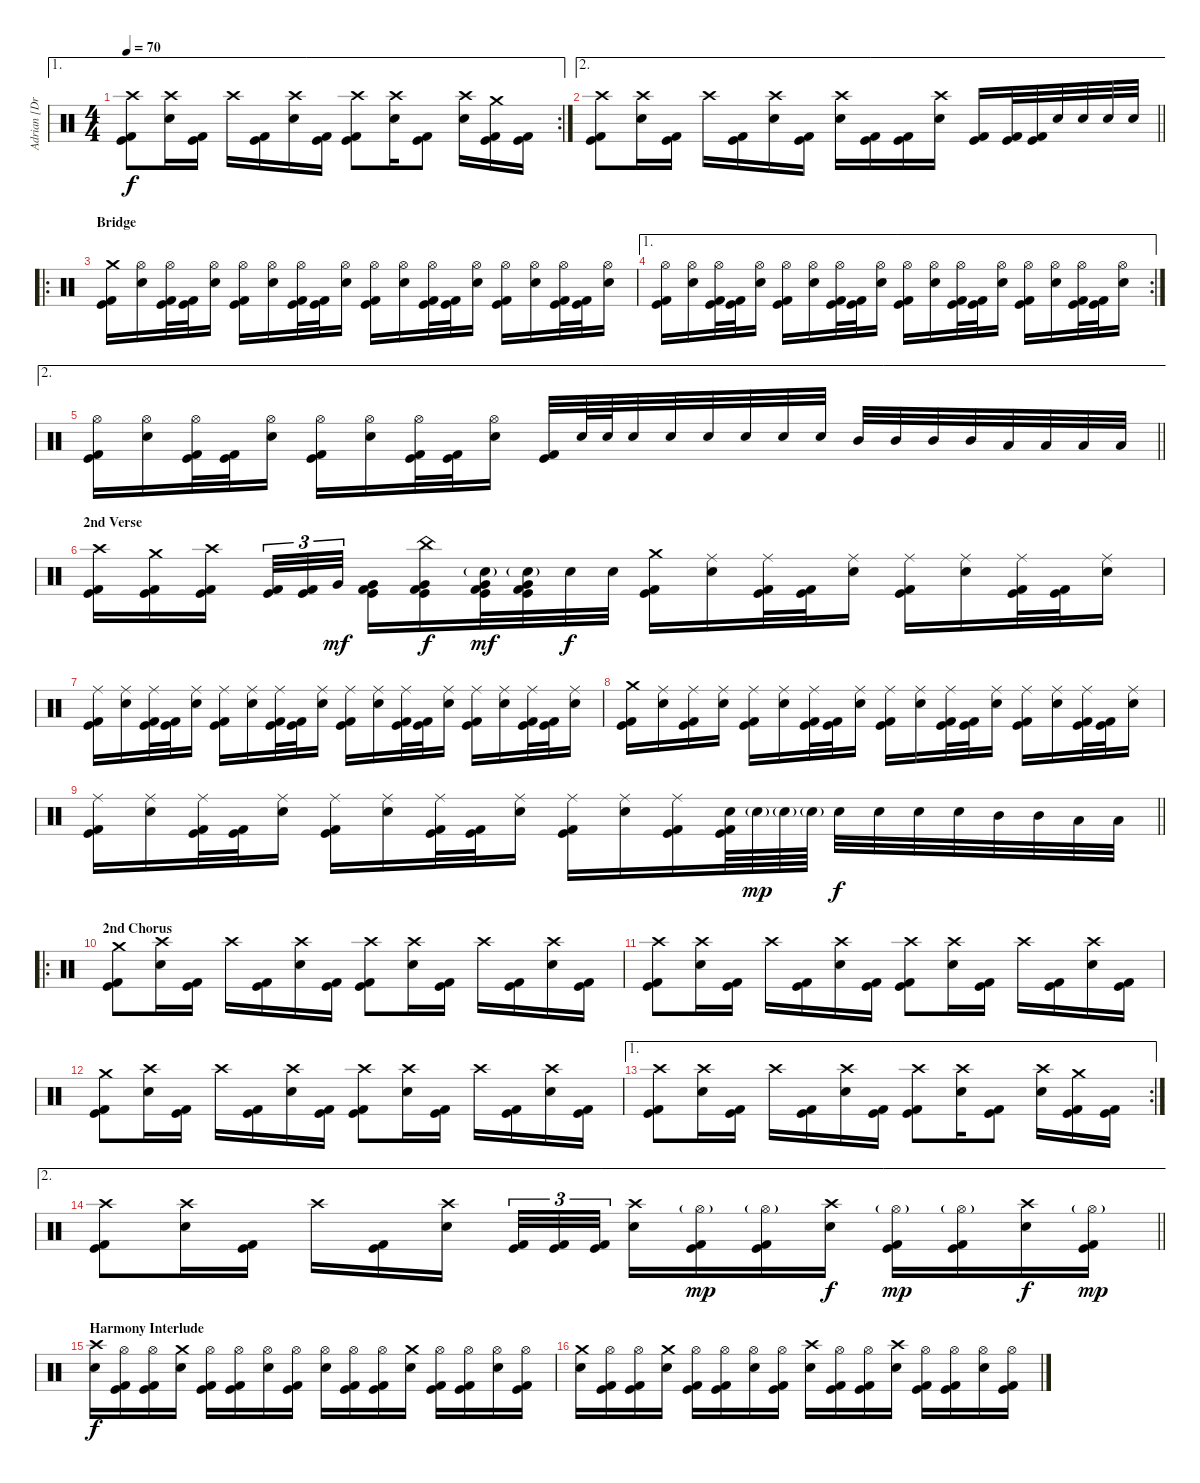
\track ("Adrian [Drums]" "Adrian [Dr") {instrument percussion}
\staff {score}
\articulation defaults
\ae 1
\rc 2
\ts (4 4)
\tempo 70
\clef neutral
\ks c
("Crash high (hit)" "Kick (hit)" "Kick (hit) 2").8{dy f} ("Crash high (hit)" "Electric Snare (hit)").16 ("Kick (hit)" "Kick (hit) 2").16 "Crash high (hit)".16 ("Kick (hit)" "Kick (hit) 2").16 ("Crash high (hit)" "Electric Snare (hit)").16 ("Kick (hit)" "Kick (hit) 2").16 ("Crash high (hit)" "Kick (hit)" "Kick (hit) 2").8 ("Crash high (hit)" "Electric Snare (hit)").16 ("Kick (hit)" "Kick (hit) 2").8 ("Crash high (hit)" "Electric Snare (hit)").16 ("Crash medium (hit)" "Kick (hit)" "Kick (hit) 2").16 ("Kick (hit)" "Kick (hit) 2").16 |
\ae 2
\barLineRight lightlight
("Crash high (hit)" "Kick (hit)" "Kick (hit) 2").8 ("Crash high (hit)" "Electric Snare (hit)").16 ("Kick (hit)" "Kick (hit) 2").16 "Crash high (hit)".16 ("Kick (hit)" "Kick (hit) 2").16 ("Crash high (hit)" "Electric Snare (hit)").16 ("Kick (hit)" "Kick (hit) 2").16 ("Crash high (hit)" "Electric Snare (hit)").16 ("Kick (hit)" "Kick (hit) 2").16 ("Kick (hit)" "Kick (hit) 2").16 ("Crash high (hit)" "Electric Snare (hit)").16 ("Kick (hit)" "Kick (hit) 2").16 ("Kick (hit)" "Kick (hit) 2").32 ("Kick (hit)" "Kick (hit) 2").32 "Electric Snare (hit)".32 "Electric Snare (hit)".32 "Electric Snare (hit)".32 "Electric Snare (hit)".32 |
\ro
\section ("" "Bridge")
("Crash medium (hit)" "Kick (hit)" "Kick (hit) 2").16 ("Hi-Hat (open)" "Electric Snare (hit)").16 ("Hi-Hat (open)" "Kick (hit)" "Kick (hit) 2").32 ("Kick (hit)" "Kick (hit) 2").32 ("Hi-Hat (open)" "Electric Snare (hit)").16 ("Hi-Hat (open)" "Kick (hit)" "Kick (hit) 2").16 ("Hi-Hat (open)" "Electric Snare (hit)").16 ("Hi-Hat (open)" "Kick (hit)" "Kick (hit) 2").32 ("Kick (hit)" "Kick (hit) 2").32 ("Hi-Hat (open)" "Electric Snare (hit)").16 ("Hi-Hat (open)" "Kick (hit)" "Kick (hit) 2").16 ("Hi-Hat (open)" "Electric Snare (hit)").16 ("Hi-Hat (open)" "Kick (hit)" "Kick (hit) 2").32 ("Kick (hit)" "Kick (hit) 2").32 ("Hi-Hat (open)" "Electric Snare (hit)").16 ("Hi-Hat (open)" "Kick (hit)" "Kick (hit) 2").16 ("Hi-Hat (open)" "Electric Snare (hit)").16 ("Hi-Hat (open)" "Kick (hit)" "Kick (hit) 2").32 ("Kick (hit)" "Kick (hit) 2").32 ("Hi-Hat (open)" "Electric Snare (hit)").16 |
\ae 1
\rc 2
("Hi-Hat (open)" "Kick (hit)" "Kick (hit) 2").16 ("Hi-Hat (open)" "Electric Snare (hit)").16 ("Hi-Hat (open)" "Kick (hit)" "Kick (hit) 2").32 ("Kick (hit)" "Kick (hit) 2").32 ("Hi-Hat (open)" "Electric Snare (hit)").16 ("Hi-Hat (open)" "Kick (hit)" "Kick (hit) 2").16 ("Hi-Hat (open)" "Electric Snare (hit)").16 ("Hi-Hat (open)" "Kick (hit)" "Kick (hit) 2").32 ("Kick (hit)" "Kick (hit) 2").32 ("Hi-Hat (open)" "Electric Snare (hit)").16 ("Hi-Hat (open)" "Kick (hit)" "Kick (hit) 2").16 ("Hi-Hat (open)" "Electric Snare (hit)").16 ("Hi-Hat (open)" "Kick (hit)" "Kick (hit) 2").32 ("Kick (hit)" "Kick (hit) 2").32 ("Hi-Hat (open)" "Electric Snare (hit)").16 ("Hi-Hat (open)" "Kick (hit)" "Kick (hit) 2").16 ("Hi-Hat (open)" "Electric Snare (hit)").16 ("Hi-Hat (open)" "Kick (hit)" "Kick (hit) 2").32 ("Kick (hit)" "Kick (hit) 2").32 ("Hi-Hat (open)" "Electric Snare (hit)").16 |
\ae 2
\barLineRight lightlight
("Hi-Hat (open)" "Kick (hit)" "Kick (hit) 2").16 ("Hi-Hat (open)" "Electric Snare (hit)").16 ("Hi-Hat (open)" "Kick (hit)" "Kick (hit) 2").32 ("Kick (hit)" "Kick (hit) 2").32 ("Hi-Hat (open)" "Electric Snare (hit)").16 ("Hi-Hat (open)" "Kick (hit)" "Kick (hit) 2").16 ("Hi-Hat (open)" "Electric Snare (hit)").16 ("Hi-Hat (open)" "Kick (hit)" "Kick (hit) 2").32 ("Kick (hit)" "Kick (hit) 2").32 ("Hi-Hat (open)" "Electric Snare (hit)").16 ("Kick (hit)" "Kick (hit) 2").32 "Electric Snare (hit)".64 "Electric Snare (hit)".64 "Electric Snare (hit)".32 "Electric Snare (hit)".32 "Electric Snare (hit)".32 "Electric Snare (hit)".32 "Electric Snare (hit)".32 "Electric Snare (hit)".32 "Mid Tom (hit)".32 "Mid Tom (hit)".32 "Mid Tom (hit)".32 "Mid Tom (hit)".32 "Low Tom (hit)".32 "Low Tom (hit)".32 "Low Tom (hit)".32 "Low Tom (hit)".32 |
\section ("" "2nd Verse")
("Crash high (hit)" "Kick (hit)" "Kick (hit) 2").16 ("Crash medium (hit)" "Kick (hit)" "Kick (hit) 2").16 ("Crash high (hit)" "Kick (hit)" "Kick (hit) 2").16{beam splitsecondary} ("Kick (hit)" "Kick (hit) 2").32{tu (3 2)} ("Kick (hit)" "Kick (hit) 2").32{tu (3 2)} "Very Low Tom (hit)".32{tu (3 2) dy mf} ("Very Low Tom (hit)" "Kick (hit)" "Kick (hit) 2").16 ("China (hit)" "Very Low Tom (hit)" "Kick (hit)" "Kick (hit) 2").16{dy f} ("Very Low Tom (hit)" "Electric Snare (hit)"{g} "Kick (hit)" "Kick (hit) 2").32{dy mf} ("Very Low Tom (hit)" "Electric Snare (hit)"{g} "Kick (hit)" "Kick (hit) 2").32 "Electric Snare (hit)".32{dy f} "Electric Snare (hit)".32 ("Crash medium (hit)" "Kick (hit)" "Kick (hit) 2").16 ("Ride (middle)" "Electric Snare (hit)").16 ("Ride (middle)" "Kick (hit)" "Kick (hit) 2").32 ("Kick (hit)" "Kick (hit) 2").32 ("Ride (middle)" "Electric Snare (hit)").16 ("Ride (middle)" "Kick (hit)" "Kick (hit) 2").16 ("Ride (middle)" "Electric Snare (hit)").16 ("Ride (middle)" "Kick (hit)" "Kick (hit) 2").32 ("Kick (hit)" "Kick (hit) 2").32 ("Ride (middle)" "Electric Snare (hit)").16 |
("Ride (middle)" "Kick (hit)" "Kick (hit) 2").16 ("Ride (middle)" "Electric Snare (hit)").16 ("Ride (middle)" "Kick (hit)" "Kick (hit) 2").32 ("Kick (hit)" "Kick (hit) 2").32 ("Ride (middle)" "Electric Snare (hit)").16 ("Ride (middle)" "Kick (hit)" "Kick (hit) 2").16 ("Ride (middle)" "Electric Snare (hit)").16 ("Ride (middle)" "Kick (hit)" "Kick (hit) 2").32 ("Kick (hit)" "Kick (hit) 2").32 ("Ride (middle)" "Electric Snare (hit)").16 ("Ride (middle)" "Kick (hit)" "Kick (hit) 2").16 ("Ride (middle)" "Electric Snare (hit)").16 ("Ride (middle)" "Kick (hit)" "Kick (hit) 2").32 ("Kick (hit)" "Kick (hit) 2").32 ("Ride (middle)" "Electric Snare (hit)").16 ("Ride (middle)" "Kick (hit)" "Kick (hit) 2").16 ("Ride (middle)" "Electric Snare (hit)").16 ("Ride (middle)" "Kick (hit)" "Kick (hit) 2").32 ("Kick (hit)" "Kick (hit) 2").32 ("Ride (middle)" "Electric Snare (hit)").16 |
("Crash medium (hit)" "Kick (hit)" "Kick (hit) 2").16 ("Ride (middle)" "Electric Snare (hit)").16 ("Ride (middle)" "Kick (hit)" "Kick (hit) 2").16 ("Ride (middle)" "Electric Snare (hit)").16 ("Ride (middle)" "Kick (hit)" "Kick (hit) 2").16 ("Ride (middle)" "Electric Snare (hit)").16 ("Ride (middle)" "Kick (hit)" "Kick (hit) 2").32 ("Kick (hit)" "Kick (hit) 2").32 ("Ride (middle)" "Electric Snare (hit)").16 ("Ride (middle)" "Kick (hit)" "Kick (hit) 2").16 ("Ride (middle)" "Electric Snare (hit)").16 ("Ride (middle)" "Kick (hit)" "Kick (hit) 2").32 ("Kick (hit)" "Kick (hit) 2").32 ("Ride (middle)" "Electric Snare (hit)").16 ("Ride (middle)" "Kick (hit)" "Kick (hit) 2").16 ("Ride (middle)" "Electric Snare (hit)").16 ("Ride (middle)" "Kick (hit)" "Kick (hit) 2").32 ("Kick (hit)" "Kick (hit) 2").32 ("Ride (middle)" "Electric Snare (hit)").16 |
\barLineRight lightlight
("Ride (middle)" "Kick (hit)" "Kick (hit) 2").16 ("Ride (middle)" "Electric Snare (hit)").16 ("Ride (middle)" "Kick (hit)" "Kick (hit) 2").32 ("Kick (hit)" "Kick (hit) 2").32 ("Ride (middle)" "Electric Snare (hit)").16 ("Ride (middle)" "Kick (hit)" "Kick (hit) 2").16 ("Ride (middle)" "Electric Snare (hit)").16 ("Ride (middle)" "Kick (hit)" "Kick (hit) 2").32 ("Kick (hit)" "Kick (hit) 2").32 ("Ride (middle)" "Electric Snare (hit)").16 ("Ride (middle)" "Kick (hit)" "Kick (hit) 2").16 ("Ride (middle)" "Electric Snare (hit)").16 ("Ride (middle)" "Kick (hit)" "Kick (hit) 2").16 ("Electric Snare (hit)" "Kick (hit)" "Kick (hit) 2").64 "Electric Snare (hit)"{g}.64{dy mp} "Electric Snare (hit)"{g}.64 "Electric Snare (hit)"{g}.64 "Electric Snare (hit)".32{dy f} "Electric Snare (hit)".32 "Electric Snare (hit)".32 "Electric Snare (hit)".32 "Mid Tom (hit)".32 "Mid Tom (hit)".32 "Low Tom (hit)".32 "Low Tom (hit)".32 |
\ro
\section ("" "2nd Chorus")
("Crash medium (hit)" "Kick (hit)" "Kick (hit) 2").8 ("Crash high (hit)" "Electric Snare (hit)").16 ("Kick (hit)" "Kick (hit) 2").16 "Crash high (hit)".16 ("Kick (hit)" "Kick (hit) 2").16 ("Crash high (hit)" "Electric Snare (hit)").16 ("Kick (hit)" "Kick (hit) 2").16 ("Crash high (hit)" "Kick (hit)" "Kick (hit) 2").8 ("Crash high (hit)" "Electric Snare (hit)").16 ("Kick (hit)" "Kick (hit) 2").16 "Crash high (hit)".16 ("Kick (hit)" "Kick (hit) 2").16 ("Crash high (hit)" "Electric Snare (hit)").16 ("Kick (hit)" "Kick (hit) 2").16 |
("Crash high (hit)" "Kick (hit)" "Kick (hit) 2").8 ("Crash high (hit)" "Electric Snare (hit)").16 ("Kick (hit)" "Kick (hit) 2").16 "Crash high (hit)".16 ("Kick (hit)" "Kick (hit) 2").16 ("Crash high (hit)" "Electric Snare (hit)").16 ("Kick (hit)" "Kick (hit) 2").16 ("Crash high (hit)" "Kick (hit)" "Kick (hit) 2").8 ("Crash high (hit)" "Electric Snare (hit)").16 ("Kick (hit)" "Kick (hit) 2").16 "Crash high (hit)".16 ("Kick (hit)" "Kick (hit) 2").16 ("Crash high (hit)" "Electric Snare (hit)").16 ("Kick (hit)" "Kick (hit) 2").16 |
("Crash medium (hit)" "Kick (hit)" "Kick (hit) 2").8 ("Crash high (hit)" "Electric Snare (hit)").16 ("Kick (hit)" "Kick (hit) 2").16 "Crash high (hit)".16 ("Kick (hit)" "Kick (hit) 2").16 ("Crash high (hit)" "Electric Snare (hit)").16 ("Kick (hit)" "Kick (hit) 2").16 ("Crash high (hit)" "Kick (hit)" "Kick (hit) 2").8 ("Crash high (hit)" "Electric Snare (hit)").16 ("Kick (hit)" "Kick (hit) 2").16 "Crash high (hit)".16 ("Kick (hit)" "Kick (hit) 2").16 ("Crash high (hit)" "Electric Snare (hit)").16 ("Kick (hit)" "Kick (hit) 2").16 |
\ae 1
\rc 2
("Crash high (hit)" "Kick (hit)" "Kick (hit) 2").8 ("Crash high (hit)" "Electric Snare (hit)").16 ("Kick (hit)" "Kick (hit) 2").16 "Crash high (hit)".16 ("Kick (hit)" "Kick (hit) 2").16 ("Crash high (hit)" "Electric Snare (hit)").16 ("Kick (hit)" "Kick (hit) 2").16 ("Crash high (hit)" "Kick (hit)" "Kick (hit) 2").8 ("Crash high (hit)" "Electric Snare (hit)").16 ("Kick (hit)" "Kick (hit) 2").8 ("Crash high (hit)" "Electric Snare (hit)").16 ("Crash medium (hit)" "Kick (hit)" "Kick (hit) 2").16 ("Kick (hit)" "Kick (hit) 2").16 |
\ae 2
\barLineRight lightlight
("Crash high (hit)" "Kick (hit)" "Kick (hit) 2").8 ("Crash high (hit)" "Electric Snare (hit)").16 ("Kick (hit)" "Kick (hit) 2").16 "Crash high (hit)".16 ("Kick (hit)" "Kick (hit) 2").16 ("Crash high (hit)" "Electric Snare (hit)").16{beam splitsecondary} ("Kick (hit)" "Kick (hit) 2").32{tu (3 2)} ("Kick (hit)" "Kick (hit) 2").32{tu (3 2)} ("Kick (hit)" "Kick (hit) 2").32{tu (3 2)} ("Crash high (hit)" "Electric Snare (hit)").16 ("Hi-Hat (open)"{g} "Kick (hit)" "Kick (hit) 2").16{dy mp} ("Hi-Hat (open)"{g} "Kick (hit)" "Kick (hit) 2").16 ("Crash high (hit)" "Electric Snare (hit)").16{dy f} ("Hi-Hat (open)"{g} "Kick (hit)" "Kick (hit) 2").16{dy mp} ("Hi-Hat (open)"{g} "Kick (hit)" "Kick (hit) 2").16 ("Crash high (hit)" "Electric Snare (hit)").16{dy f} ("Hi-Hat (open)"{g} "Kick (hit)" "Kick (hit) 2").16{dy mp} |
\section ("" "Harmony Interlude")
("Crash high (hit)" "Electric Snare (hit)").16{dy f} ("Hi-Hat (open)" "Kick (hit)" "Kick (hit) 2").16 ("Hi-Hat (open)" "Kick (hit)" "Kick (hit) 2").16 ("Crash medium (hit)" "Electric Snare (hit)").16 ("Hi-Hat (open)" "Kick (hit)" "Kick (hit) 2").16 ("Hi-Hat (open)" "Kick (hit)" "Kick (hit) 2").16 ("Hi-Hat (open)" "Electric Snare (hit)").16 ("Hi-Hat (open)" "Kick (hit)" "Kick (hit) 2").16 ("Hi-Hat (open)" "Electric Snare (hit)").16 ("Hi-Hat (open)" "Kick (hit)" "Kick (hit) 2").16 ("Hi-Hat (open)" "Kick (hit)" "Kick (hit) 2").16 ("Crash medium (hit)" "Electric Snare (hit)").16 ("Hi-Hat (open)" "Kick (hit)" "Kick (hit) 2").16 ("Hi-Hat (open)" "Kick (hit)" "Kick (hit) 2").16 ("Hi-Hat (open)" "Electric Snare (hit)").16 ("Hi-Hat (open)" "Kick (hit)" "Kick (hit) 2").16 |
("Crash medium (hit)" "Electric Snare (hit)").16 ("Hi-Hat (open)" "Kick (hit)" "Kick (hit) 2").16 ("Hi-Hat (open)" "Kick (hit)" "Kick (hit) 2").16 ("Crash medium (hit)" "Electric Snare (hit)").16 ("Hi-Hat (open)" "Kick (hit)" "Kick (hit) 2").16 ("Hi-Hat (open)" "Kick (hit)" "Kick (hit) 2").16 ("Hi-Hat (open)" "Electric Snare (hit)").16 ("Hi-Hat (open)" "Kick (hit)" "Kick (hit) 2").16 ("Crash high (hit)" "Electric Snare (hit)").16 ("Hi-Hat (open)" "Kick (hit)" "Kick (hit) 2").16 ("Hi-Hat (open)" "Kick (hit)" "Kick (hit) 2").16 ("Crash high (hit)" "Electric Snare (hit)").16 ("Hi-Hat (open)" "Kick (hit)" "Kick (hit) 2").16 ("Hi-Hat (open)" "Kick (hit)" "Kick (hit) 2").16 ("Hi-Hat (open)" "Electric Snare (hit)").16 ("Hi-Hat (open)" "Kick (hit)" "Kick (hit) 2").16
